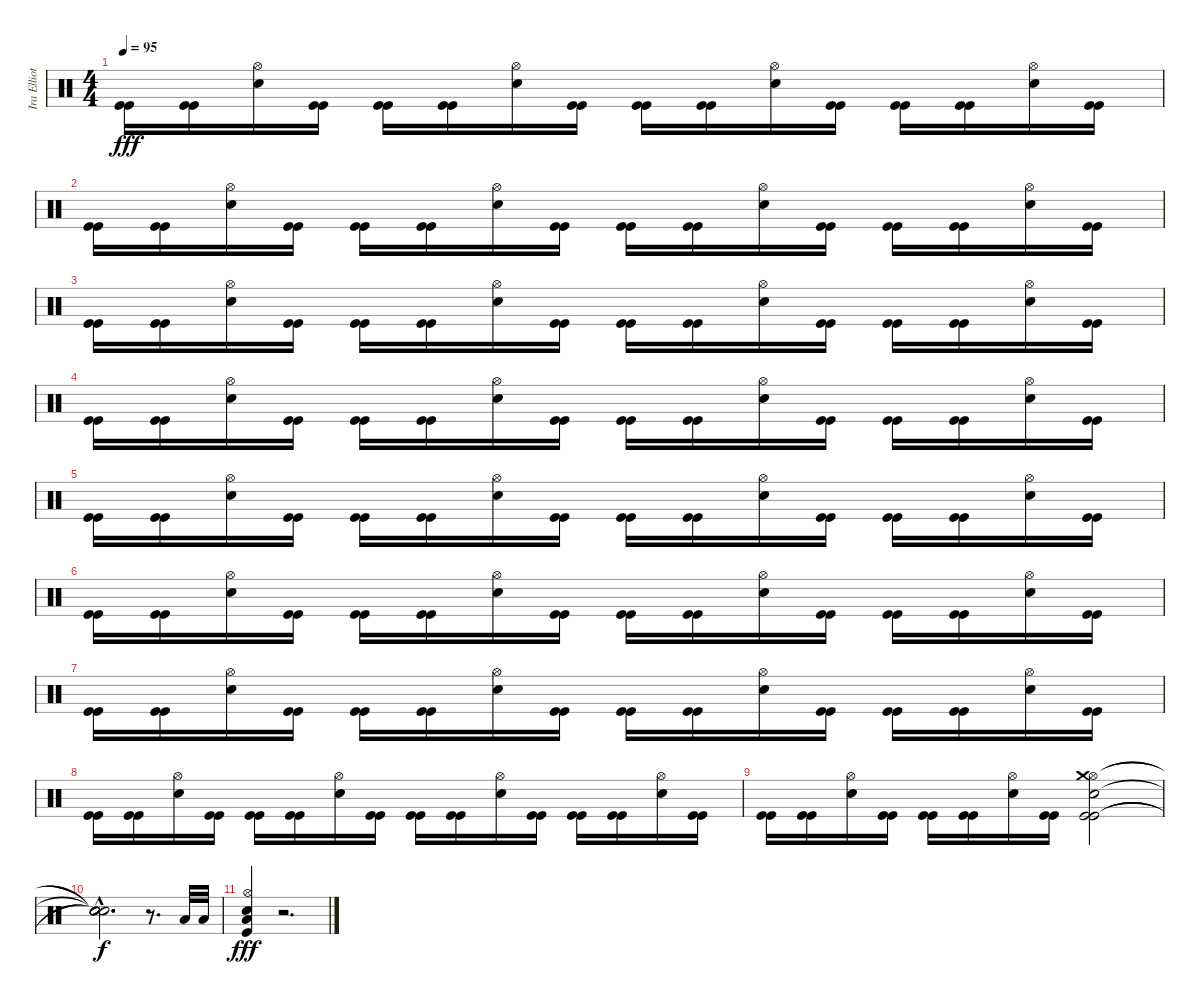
\track ("Ira Elliott" "Ira Elliot") {instrument percussion}
\staff {score}
\articulation defaults
\ts (4 4)
\tempo 95
\clef neutral
\ks c
("Kick (hit)" "Kick (hit)").16{dy fff} ("Kick (hit)" "Kick (hit)").16 ("Snare (hit) 2" "Hi-Hat (open)").16 ("Kick (hit)" "Kick (hit)").16 ("Kick (hit)" "Kick (hit)").16 ("Kick (hit)" "Kick (hit)").16 ("Snare (hit) 2" "Hi-Hat (open)").16 ("Kick (hit)" "Kick (hit)").16 ("Kick (hit)" "Kick (hit)").16 ("Kick (hit)" "Kick (hit)").16 ("Snare (hit) 2" "Hi-Hat (open)").16 ("Kick (hit)" "Kick (hit)").16 ("Kick (hit)" "Kick (hit)").16 ("Kick (hit)" "Kick (hit)").16 ("Snare (hit) 2" "Hi-Hat (open)").16 ("Kick (hit)" "Kick (hit)").16 |
("Kick (hit)" "Kick (hit)").16 ("Kick (hit)" "Kick (hit)").16 ("Snare (hit) 2" "Hi-Hat (open)").16 ("Kick (hit)" "Kick (hit)").16 ("Kick (hit)" "Kick (hit)").16 ("Kick (hit)" "Kick (hit)").16 ("Snare (hit) 2" "Hi-Hat (open)").16 ("Kick (hit)" "Kick (hit)").16 ("Kick (hit)" "Kick (hit)").16 ("Kick (hit)" "Kick (hit)").16 ("Snare (hit) 2" "Hi-Hat (open)").16 ("Kick (hit)" "Kick (hit)").16 ("Kick (hit)" "Kick (hit)").16 ("Kick (hit)" "Kick (hit)").16 ("Snare (hit) 2" "Hi-Hat (open)").16 ("Kick (hit)" "Kick (hit)").16 |
("Kick (hit)" "Kick (hit)").16 ("Kick (hit)" "Kick (hit)").16 ("Snare (hit) 2" "Hi-Hat (open)").16 ("Kick (hit)" "Kick (hit)").16 ("Kick (hit)" "Kick (hit)").16 ("Kick (hit)" "Kick (hit)").16 ("Snare (hit) 2" "Hi-Hat (open)").16 ("Kick (hit)" "Kick (hit)").16 ("Kick (hit)" "Kick (hit)").16 ("Kick (hit)" "Kick (hit)").16 ("Snare (hit) 2" "Hi-Hat (open)").16 ("Kick (hit)" "Kick (hit)").16 ("Kick (hit)" "Kick (hit)").16 ("Kick (hit)" "Kick (hit)").16 ("Snare (hit) 2" "Hi-Hat (open)").16 ("Kick (hit)" "Kick (hit)").16 |
("Kick (hit)" "Kick (hit)").16 ("Kick (hit)" "Kick (hit)").16 ("Snare (hit) 2" "Hi-Hat (open)").16 ("Kick (hit)" "Kick (hit)").16 ("Kick (hit)" "Kick (hit)").16 ("Kick (hit)" "Kick (hit)").16 ("Snare (hit) 2" "Hi-Hat (open)").16 ("Kick (hit)" "Kick (hit)").16 ("Kick (hit)" "Kick (hit)").16 ("Kick (hit)" "Kick (hit)").16 ("Snare (hit) 2" "Hi-Hat (open)").16 ("Kick (hit)" "Kick (hit)").16 ("Kick (hit)" "Kick (hit)").16 ("Kick (hit)" "Kick (hit)").16 ("Snare (hit) 2" "Hi-Hat (open)").16 ("Kick (hit)" "Kick (hit)").16 |
("Kick (hit)" "Kick (hit)").16 ("Kick (hit)" "Kick (hit)").16 ("Snare (hit) 2" "Hi-Hat (open)").16 ("Kick (hit)" "Kick (hit)").16 ("Kick (hit)" "Kick (hit)").16 ("Kick (hit)" "Kick (hit)").16 ("Snare (hit) 2" "Hi-Hat (open)").16 ("Kick (hit)" "Kick (hit)").16 ("Kick (hit)" "Kick (hit)").16 ("Kick (hit)" "Kick (hit)").16 ("Snare (hit) 2" "Hi-Hat (open)").16 ("Kick (hit)" "Kick (hit)").16 ("Kick (hit)" "Kick (hit)").16 ("Kick (hit)" "Kick (hit)").16 ("Snare (hit) 2" "Hi-Hat (open)").16 ("Kick (hit)" "Kick (hit)").16 |
("Kick (hit)" "Kick (hit)").16 ("Kick (hit)" "Kick (hit)").16 ("Snare (hit) 2" "Hi-Hat (open)").16 ("Kick (hit)" "Kick (hit)").16 ("Kick (hit)" "Kick (hit)").16 ("Kick (hit)" "Kick (hit)").16 ("Snare (hit) 2" "Hi-Hat (open)").16 ("Kick (hit)" "Kick (hit)").16 ("Kick (hit)" "Kick (hit)").16 ("Kick (hit)" "Kick (hit)").16 ("Snare (hit) 2" "Hi-Hat (open)").16 ("Kick (hit)" "Kick (hit)").16 ("Kick (hit)" "Kick (hit)").16 ("Kick (hit)" "Kick (hit)").16 ("Snare (hit) 2" "Hi-Hat (open)").16 ("Kick (hit)" "Kick (hit)").16 |
("Kick (hit)" "Kick (hit)").16 ("Kick (hit)" "Kick (hit)").16 ("Snare (hit) 2" "Hi-Hat (open)").16 ("Kick (hit)" "Kick (hit)").16 ("Kick (hit)" "Kick (hit)").16 ("Kick (hit)" "Kick (hit)").16 ("Snare (hit) 2" "Hi-Hat (open)").16 ("Kick (hit)" "Kick (hit)").16 ("Kick (hit)" "Kick (hit)").16 ("Kick (hit)" "Kick (hit)").16 ("Snare (hit) 2" "Hi-Hat (open)").16 ("Kick (hit)" "Kick (hit)").16 ("Kick (hit)" "Kick (hit)").16 ("Kick (hit)" "Kick (hit)").16 ("Snare (hit) 2" "Hi-Hat (open)").16 ("Kick (hit)" "Kick (hit)").16 |
("Kick (hit)" "Kick (hit)").16 ("Kick (hit)" "Kick (hit)").16 ("Snare (hit) 2" "Hi-Hat (open)").16 ("Kick (hit)" "Kick (hit)").16 ("Kick (hit)" "Kick (hit)").16 ("Kick (hit)" "Kick (hit)").16 ("Snare (hit) 2" "Hi-Hat (open)").16 ("Kick (hit)" "Kick (hit)").16 ("Kick (hit)" "Kick (hit)").16 ("Kick (hit)" "Kick (hit)").16 ("Snare (hit) 2" "Hi-Hat (open)").16 ("Kick (hit)" "Kick (hit)").16 ("Kick (hit)" "Kick (hit)").16 ("Kick (hit)" "Kick (hit)").16 ("Snare (hit) 2" "Hi-Hat (open)").16 ("Kick (hit)" "Kick (hit)").16 |
("Kick (hit)" "Kick (hit)").16 ("Kick (hit)" "Kick (hit)").16 ("Snare (hit) 2" "Hi-Hat (open)").16 ("Kick (hit)" "Kick (hit)").16 ("Kick (hit)" "Kick (hit)").16 ("Kick (hit)" "Kick (hit)").16 ("Snare (hit) 2" "Hi-Hat (open)").16 ("Kick (hit)" "Kick (hit)").16 ("Snare (hit) 2" "Hi-Hat (open)" "Crash medium (hit)" "Kick (hit)" "Kick (hit)").2 |
("Snare (hit)"{hac t} "Snare (hit)"{hac t} "Snare (hit)"{hac t} "Snare (hit)"{hac t} "Snare (hit)"{hac t}).2{d dy f} r.8{d} "Low Floor Tom (hit)".32 "Low Floor Tom (hit)".32 |
("Snare (hit) 2" "Hi-Hat (open)" "Kick (hit)" "Low Floor Tom (hit)").4{dy fff} r.2{d}
